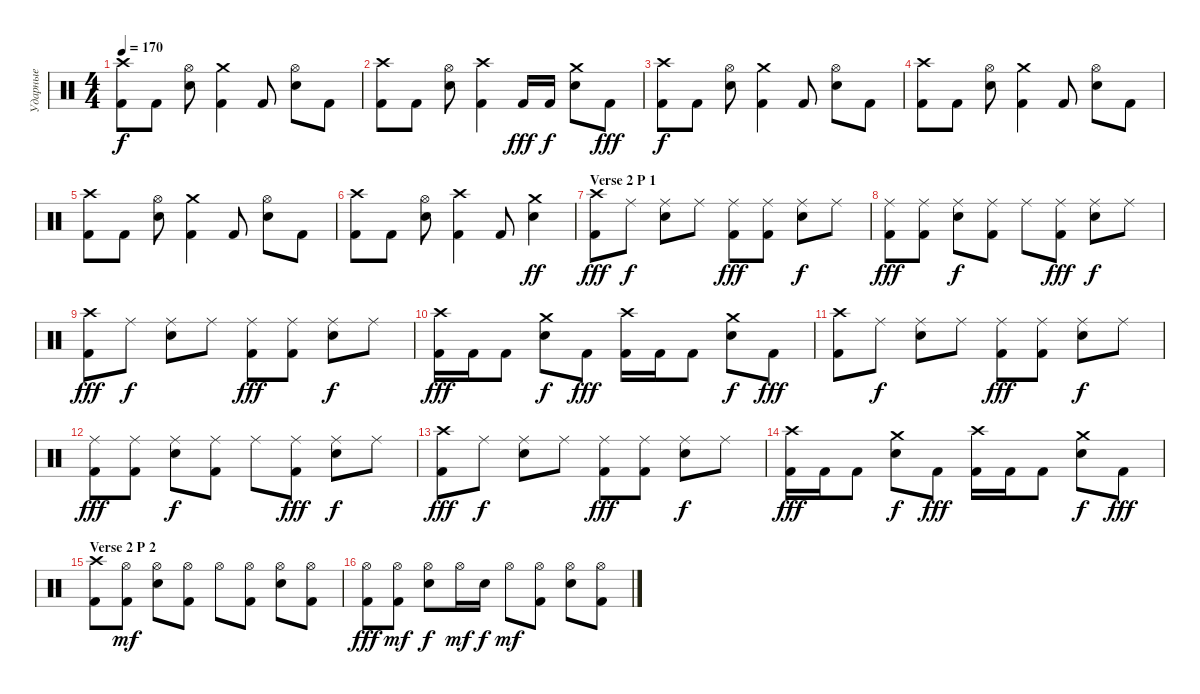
\track ("Ударные" "Ударные") {instrument percussion}
\staff {score}
\articulation defaults
\ts (4 4)
\tempo 170
\clef neutral
\ks c
("Kick (hit) 2" "Crash high (hit)").8{dy f} "Kick (hit) 2".8 ("Snare (hit) 2" "Hi-Hat (open)").8 ("Kick (hit) 2" "Crash medium (hit)").4 "Kick (hit) 2".8 ("Snare (hit) 2" "Hi-Hat (open)").8 "Kick (hit) 2".8 |
("Kick (hit) 2" "Crash high (hit)").8 "Kick (hit) 2".8 ("Snare (hit) 2" "Hi-Hat (open)").8 ("Kick (hit) 2" "Crash high (hit)").4 "Kick (hit) 2".16{dy fff} "Kick (hit) 2".16{dy f} ("Snare (hit) 2" "Crash medium (hit)").8 "Kick (hit) 2".8{dy fff} |
("Kick (hit) 2" "Crash high (hit)").8{dy f} "Kick (hit) 2".8 ("Snare (hit) 2" "Hi-Hat (open)").8 ("Kick (hit) 2" "Crash medium (hit)").4 "Kick (hit) 2".8 ("Snare (hit) 2" "Hi-Hat (open)").8 "Kick (hit) 2".8 |
("Kick (hit) 2" "Crash high (hit)").8 "Kick (hit) 2".8 ("Snare (hit) 2" "Hi-Hat (open)").8 ("Kick (hit) 2" "Crash medium (hit)").4 "Kick (hit) 2".8 ("Snare (hit) 2" "Hi-Hat (open)").8 "Kick (hit) 2".8 |
("Kick (hit) 2" "Crash high (hit)").8 "Kick (hit) 2".8 ("Snare (hit) 2" "Hi-Hat (open)").8 ("Kick (hit) 2" "Crash medium (hit)").4 "Kick (hit) 2".8 ("Snare (hit) 2" "Hi-Hat (open)").8 "Kick (hit) 2".8 |
("Kick (hit) 2" "Crash high (hit)").8 "Kick (hit) 2".8 ("Snare (hit) 2" "Hi-Hat (open)").8 ("Kick (hit) 2" "Crash high (hit)").4 "Kick (hit) 2".8 ("Snare (hit) 2" "Crash medium (hit)").4{dy ff} |
\section ("" "Verse 2 P 1")
("Kick (hit) 2" "Crash high (hit)").8{dy fff} "Ride (middle)".8{dy f} ("Snare (hit) 2" "Ride (middle)").8 "Ride (middle)".8 ("Kick (hit) 2" "Ride (middle)").8{dy fff} ("Kick (hit) 2" "Ride (middle)").8 ("Snare (hit) 2" "Ride (middle)").8{dy f} "Ride (middle)".8 |
("Kick (hit) 2" "Ride (middle)").8{dy fff} ("Kick (hit) 2" "Ride (middle)").8 ("Snare (hit) 2" "Ride (middle)").8{dy f} ("Kick (hit) 2" "Ride (middle)").8 "Ride (middle)".8 ("Kick (hit) 2" "Ride (middle)").8{dy fff} ("Snare (hit) 2" "Ride (middle)").8{dy f} "Ride (middle)".8 |
("Kick (hit) 2" "Crash high (hit)").8{dy fff} "Ride (middle)".8{dy f} ("Snare (hit) 2" "Ride (middle)").8 "Ride (middle)".8 ("Kick (hit) 2" "Ride (middle)").8{dy fff} ("Kick (hit) 2" "Ride (middle)").8 ("Snare (hit) 2" "Ride (middle)").8{dy f} "Ride (middle)".8 |
("Kick (hit) 2" "Crash high (hit)").16{dy fff} "Kick (hit) 2".16 "Kick (hit) 2".8 ("Snare (hit) 2" "Crash medium (hit)").8{dy f} "Kick (hit) 2".8{dy fff} ("Kick (hit) 2" "Crash high (hit)").16 "Kick (hit) 2".16 "Kick (hit) 2".8 ("Snare (hit) 2" "Crash medium (hit)").8{dy f} "Kick (hit) 2".8{dy fff} |
("Kick (hit) 2" "Crash high (hit)").8 "Ride (middle)".8{dy f} ("Snare (hit) 2" "Ride (middle)").8 "Ride (middle)".8 ("Kick (hit) 2" "Ride (middle)").8{dy fff} ("Kick (hit) 2" "Ride (middle)").8 ("Snare (hit) 2" "Ride (middle)").8{dy f} "Ride (middle)".8 |
("Kick (hit) 2" "Ride (middle)").8{dy fff} ("Kick (hit) 2" "Ride (middle)").8 ("Snare (hit) 2" "Ride (middle)").8{dy f} ("Kick (hit) 2" "Ride (middle)").8 "Ride (middle)".8 ("Kick (hit) 2" "Ride (middle)").8{dy fff} ("Snare (hit) 2" "Ride (middle)").8{dy f} "Ride (middle)".8 |
("Kick (hit) 2" "Crash high (hit)").8{dy fff} "Ride (middle)".8{dy f} ("Snare (hit) 2" "Ride (middle)").8 "Ride (middle)".8 ("Kick (hit) 2" "Ride (middle)").8{dy fff} ("Kick (hit) 2" "Ride (middle)").8 ("Snare (hit) 2" "Ride (middle)").8{dy f} "Ride (middle)".8 |
("Kick (hit) 2" "Crash high (hit)").16{dy fff} "Kick (hit) 2".16 "Kick (hit) 2".8 ("Snare (hit) 2" "Crash medium (hit)").8{dy f} "Kick (hit) 2".8{dy fff} ("Kick (hit) 2" "Crash high (hit)").16 "Kick (hit) 2".16 "Kick (hit) 2".8 ("Snare (hit) 2" "Crash medium (hit)").8{dy f} "Kick (hit) 2".8{dy fff} |
\section ("" "Verse 2 P 2")
("Kick (hit) 2" "Crash high (hit)").8 ("Kick (hit) 2" "Hi-Hat (open)").8{dy mf} ("Snare (hit) 2" "Hi-Hat (open)").8 ("Kick (hit) 2" "Hi-Hat (open)").8 "Hi-Hat (open)".8 ("Kick (hit) 2" "Hi-Hat (open)").8 ("Snare (hit) 2" "Hi-Hat (open)").8 ("Kick (hit) 2" "Hi-Hat (open)").8 |
("Kick (hit) 2" "Hi-Hat (open)").8{dy fff} ("Kick (hit) 2" "Hi-Hat (open)").8{dy mf} ("Snare (hit) 2" "Hi-Hat (open)").8{dy f} "Hi-Hat (open)".16{dy mf} "Snare (hit) 2".16{dy f} "Hi-Hat (open)".8{dy mf} ("Kick (hit) 2" "Hi-Hat (open)").8 ("Snare (hit) 2" "Hi-Hat (open)").8 ("Kick (hit) 2" "Hi-Hat (open)").8
